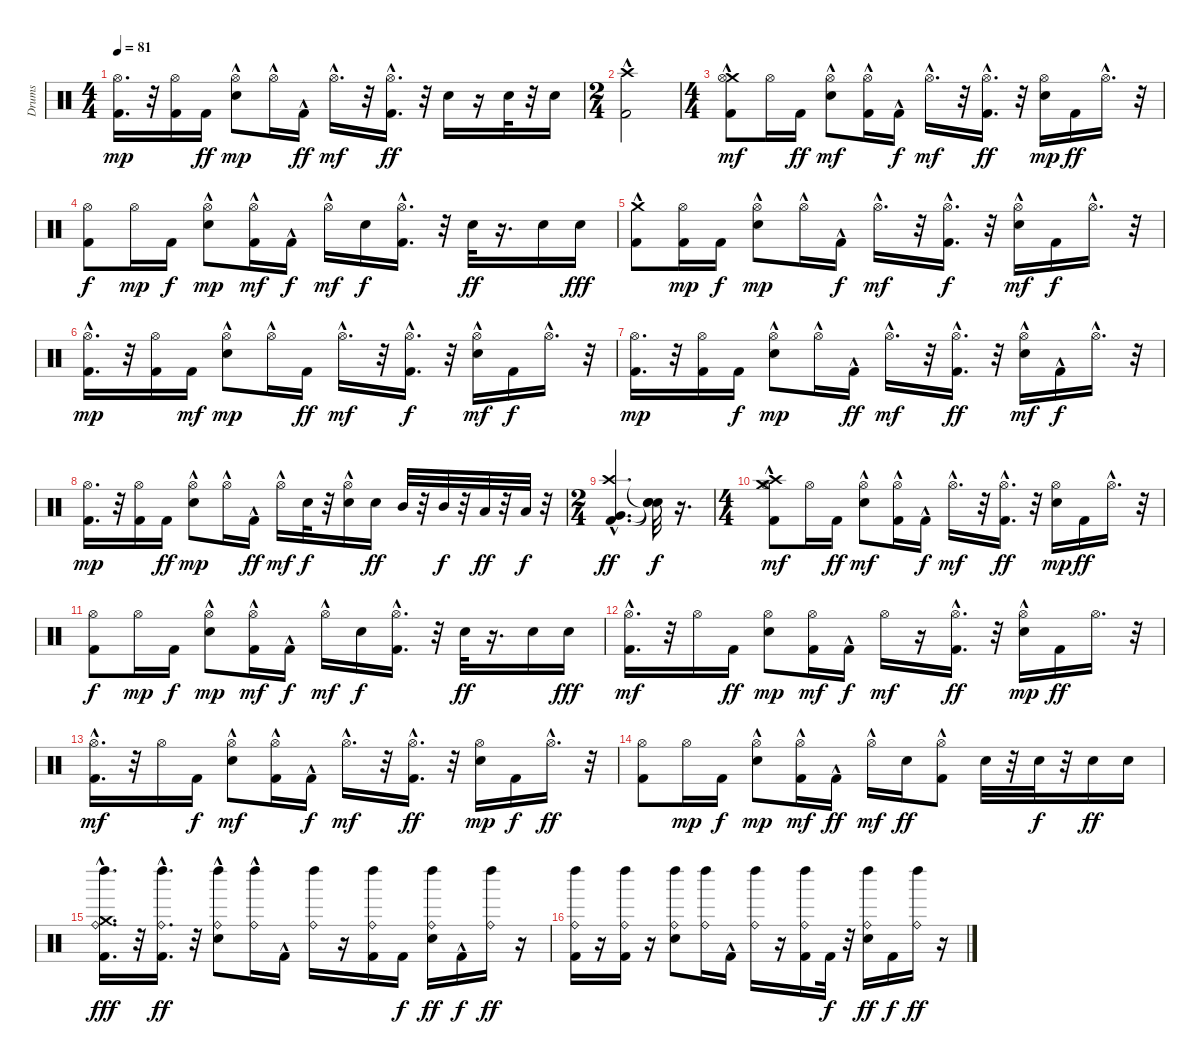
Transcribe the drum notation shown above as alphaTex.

\track ("Drums" "Drums") {instrument percussion}
\staff {score}
\articulation defaults
\ts (4 4)
\tempo 81
\clef neutral
\ks c
("Kick (hit) 2" "Hi-Hat (open)").16{d dy mp} r.32 ("Kick (hit) 2" "Hi-Hat (open)").16 "Kick (hit) 2".16{dy ff} ("Electric Snare (hit)" "Hi-Hat (open)"{hac}).8{dy mp} "Hi-Hat (open)"{hac}.16 "Kick (hit) 2"{hac}.16{dy ff} "Hi-Hat (open)"{hac}.16{d dy mf} r.32 ("Kick (hit) 2" "Hi-Hat (open)"{hac}).16{d dy ff} r.32 "Electric Snare (hit)".16 r.16 "Electric Snare (hit)".32 r.32 "Electric Snare (hit)".16 |
\ts (2 4)
("Kick (hit) 2"{hac} "Crash high (hit)"{hac}).2 |
\ts (4 4)
("Crash medium (hit)"{hac} "Kick (hit) 2" "Hi-Hat (open)").8{dy mf} "Hi-Hat (open)".16 "Kick (hit) 2".16{dy ff} ("Electric Snare (hit)" "Hi-Hat (open)"{hac}).8{dy mf} ("Kick (hit) 2" "Hi-Hat (open)"{hac}).16 "Kick (hit) 2"{hac}.16{dy f} "Hi-Hat (open)"{hac}.16{d dy mf} r.32 ("Kick (hit) 2"{hac} "Hi-Hat (open)"{hac}).16{d dy ff} r.32 ("Electric Snare (hit)" "Hi-Hat (open)").16{dy mp} "Kick (hit) 2".16{dy ff} "Hi-Hat (open)"{hac}.16{d} r.32 |
("Kick (hit) 2" "Hi-Hat (open)").8{dy f} "Hi-Hat (open)".16{dy mp} "Kick (hit) 2".16{dy f} ("Electric Snare (hit)" "Hi-Hat (open)"{hac}).8{dy mp} ("Kick (hit) 2" "Hi-Hat (open)"{hac}).16{dy mf} "Kick (hit) 2"{hac}.16{dy f} "Hi-Hat (open)"{hac}.16{dy mf} "Electric Snare (hit)".16{dy f} ("Kick (hit) 2"{hac} "Hi-Hat (open)"{hac}).16{d} r.32 "Electric Snare (hit)".32{dy ff} r.16{d} "Electric Snare (hit)".16 "Electric Snare (hit)".16{dy fff} |
("Kick (hit) 2" "Crash medium (hit)"{hac}).8 ("Kick (hit) 2" "Hi-Hat (open)").16{dy mp} "Kick (hit) 2".16{dy f} ("Electric Snare (hit)" "Hi-Hat (open)"{hac}).8{dy mp} "Hi-Hat (open)"{hac}.16 "Kick (hit) 2"{hac}.16{dy f} "Hi-Hat (open)"{hac}.16{d dy mf} r.32 ("Kick (hit) 2"{hac} "Hi-Hat (open)"{hac}).16{d dy f} r.32 ("Electric Snare (hit)"{hac} "Hi-Hat (open)"{hac}).16{dy mf} "Kick (hit) 2".16{dy f} "Hi-Hat (open)"{hac}.16{d} r.32 |
("Kick (hit) 2"{hac} "Hi-Hat (open)").16{d dy mp} r.32 ("Kick (hit) 2" "Hi-Hat (open)").16 "Kick (hit) 2".16{dy mf} ("Electric Snare (hit)" "Hi-Hat (open)"{hac}).8{dy mp} "Hi-Hat (open)"{hac}.16 "Kick (hit) 2".16{dy ff} "Hi-Hat (open)"{hac}.16{d dy mf} r.32 ("Kick (hit) 2"{hac} "Hi-Hat (open)"{hac}).16{d dy f} r.32 ("Electric Snare (hit)" "Hi-Hat (open)"{hac}).16{dy mf} "Kick (hit) 2".16{dy f} "Hi-Hat (open)"{hac}.16{d} r.32 |
("Kick (hit) 2" "Hi-Hat (open)").16{d dy mp} r.32 ("Kick (hit) 2" "Hi-Hat (open)").16 "Kick (hit) 2".16{dy f} ("Electric Snare (hit)" "Hi-Hat (open)"{hac}).8{dy mp} "Hi-Hat (open)"{hac}.16 "Kick (hit) 2"{hac}.16{dy ff} "Hi-Hat (open)"{hac}.16{d dy mf} r.32 ("Kick (hit) 2"{hac} "Hi-Hat (open)"{hac}).16{d dy ff} r.32 ("Electric Snare (hit)" "Hi-Hat (open)"{hac}).16{dy mf} "Kick (hit) 2"{hac}.16{dy f} "Hi-Hat (open)"{hac}.16{d} r.32 |
("Kick (hit) 2" "Hi-Hat (open)").16{d dy mp} r.32 ("Kick (hit) 2" "Hi-Hat (open)").16 "Kick (hit) 2".16{dy ff} ("Electric Snare (hit)" "Hi-Hat (open)"{hac}).8{dy mp} "Hi-Hat (open)"{hac}.16 "Kick (hit) 2"{hac}.16{dy ff} "Hi-Hat (open)"{hac}.16{dy mf} "Electric Snare (hit)".32{dy f} r.32 ("Electric Snare (hit)" "Hi-Hat (open)"{hac}).16 "Electric Snare (hit)".16{dy ff} "Mid Tom (hit)".32 r.32 "Mid Tom (hit)".32{dy f} r.32 "Low Tom (hit)".32{dy ff} r.32 "Low Tom (hit)".32{dy f} r.32 |
\ts (2 4)
("Very Low Tom (hit)"{hac} "Kick (hit) 2"{hac} "Crash high (hit)"{hac}).4{d dy ff} ("Snare (hit)"{t} "Snare (hit)"{t} "Snare (hit)"{t}).32{dy f} r.16{d} |
\ts (4 4)
("Crash medium (hit)"{hac} "Kick (hit) 2" "Crash high (hit)" "Hi-Hat (open)").8{dy mf} "Hi-Hat (open)".16 "Kick (hit) 2".16{dy ff} ("Electric Snare (hit)" "Hi-Hat (open)"{hac}).8{dy mf} ("Kick (hit) 2" "Hi-Hat (open)"{hac}).16 "Kick (hit) 2"{hac}.16{dy f} "Hi-Hat (open)"{hac}.16{d dy mf} r.32 ("Kick (hit) 2"{hac} "Hi-Hat (open)"{hac}).16{d dy ff} r.32 ("Electric Snare (hit)" "Hi-Hat (open)").16{dy mp} "Kick (hit) 2".16{dy ff} "Hi-Hat (open)"{hac}.16{d} r.32 |
("Kick (hit) 2" "Hi-Hat (open)").8{dy f} "Hi-Hat (open)".16{dy mp} "Kick (hit) 2".16{dy f} ("Electric Snare (hit)" "Hi-Hat (open)"{hac}).8{dy mp} ("Kick (hit) 2" "Hi-Hat (open)"{hac}).16{dy mf} "Kick (hit) 2"{hac}.16{dy f} "Hi-Hat (open)"{hac}.16{dy mf} "Electric Snare (hit)".16{dy f} ("Kick (hit) 2"{hac} "Hi-Hat (open)"{hac}).16{d} r.32 "Electric Snare (hit)".32{dy ff} r.16{d} "Electric Snare (hit)".16 "Electric Snare (hit)".16{dy fff} |
("Kick (hit) 2"{hac} "Hi-Hat (open)").16{d dy mf} r.32 "Hi-Hat (open)".16 "Kick (hit) 2".16{dy ff} ("Electric Snare (hit)" "Hi-Hat (open)").8{dy mp} ("Kick (hit) 2" "Hi-Hat (open)").16{dy mf} "Kick (hit) 2"{hac}.16{dy f} "Hi-Hat (open)".16{dy mf} r.16 ("Kick (hit) 2"{hac} "Hi-Hat (open)").16{d dy ff} r.32 ("Electric Snare (hit)"{hac} "Hi-Hat (open)").16{dy mp} "Kick (hit) 2".16{dy ff} "Hi-Hat (open)".16{d} r.32 |
("Kick (hit) 2"{hac} "Hi-Hat (open)").16{d dy mf} r.32 "Hi-Hat (open)".16 "Kick (hit) 2".16{dy f} ("Electric Snare (hit)" "Hi-Hat (open)"{hac}).8{dy mf} ("Kick (hit) 2" "Hi-Hat (open)"{hac}).16 "Kick (hit) 2"{hac}.16{dy f} "Hi-Hat (open)"{hac}.16{d dy mf} r.32 ("Kick (hit) 2"{hac} "Hi-Hat (open)"{hac}).16{d dy ff} r.32 ("Electric Snare (hit)" "Hi-Hat (open)").16{dy mp} "Kick (hit) 2".16{dy f} "Hi-Hat (open)"{hac}.16{d dy ff} r.32 |
("Kick (hit) 2" "Hi-Hat (open)").8 "Hi-Hat (open)".16{dy mp} "Kick (hit) 2".16{dy f} ("Electric Snare (hit)" "Hi-Hat (open)"{hac}).8{dy mp} ("Kick (hit) 2" "Hi-Hat (open)"{hac}).16{dy mf} "Kick (hit) 2"{hac}.16{dy ff} "Hi-Hat (open)"{hac}.16{dy mf} "Electric Snare (hit)".16{dy ff} ("Kick (hit) 2" "Hi-Hat (open)"{hac}).8 "Electric Snare (hit)".32 r.32 "Electric Snare (hit)".32{dy f} r.32 "Electric Snare (hit)".16{dy ff} "Electric Snare (hit)".16 |
("Kick (hit) 2" "Crash medium (hit)"{hac} "Ride (bell)"{hac} "Left Maraca (hit)").16{d dy fff} r.32 ("Kick (hit) 2"{hac} "Left Maraca (hit)" "Ride (bell)"{hac}).16{d dy ff} r.32 ("Electric Snare (hit)" "Ride (bell)"{hac} "Left Maraca (hit)").8 ("Ride (bell)"{hac} "Left Maraca (hit)").16 "Kick (hit) 2"{hac}.16 ("Ride (bell)" "Left Maraca (hit)").16 r.16 ("Kick (hit) 2" "Ride (bell)" "Left Maraca (hit)").16 "Kick (hit) 2".16{dy f} ("Electric Snare (hit)" "Left Maraca (hit)" "Ride (bell)").16{dy ff} "Kick (hit) 2"{hac}.16{dy f} ("Left Maraca (hit)" "Ride (bell)").16{dy ff} r.16 |
("Kick (hit) 2" "Ride (bell)" "Left Maraca (hit)").16 r.16 ("Kick (hit) 2" "Left Maraca (hit)" "Ride (bell)").16 r.16 ("Electric Snare (hit)" "Left Maraca (hit)" "Ride (bell)").8 ("Left Maraca (hit)" "Ride (bell)").16 "Kick (hit) 2"{hac}.16 ("Left Maraca (hit)" "Ride (bell)").16 r.16 ("Kick (hit) 2" "Left Maraca (hit)" "Ride (bell)").16 "Kick (hit) 2".32{dy f} r.32 ("Electric Snare (hit)" "Left Maraca (hit)" "Ride (bell)").16{dy ff} "Kick (hit) 2".16{dy f} ("Left Maraca (hit)" "Ride (bell)").16{dy ff} r.16
